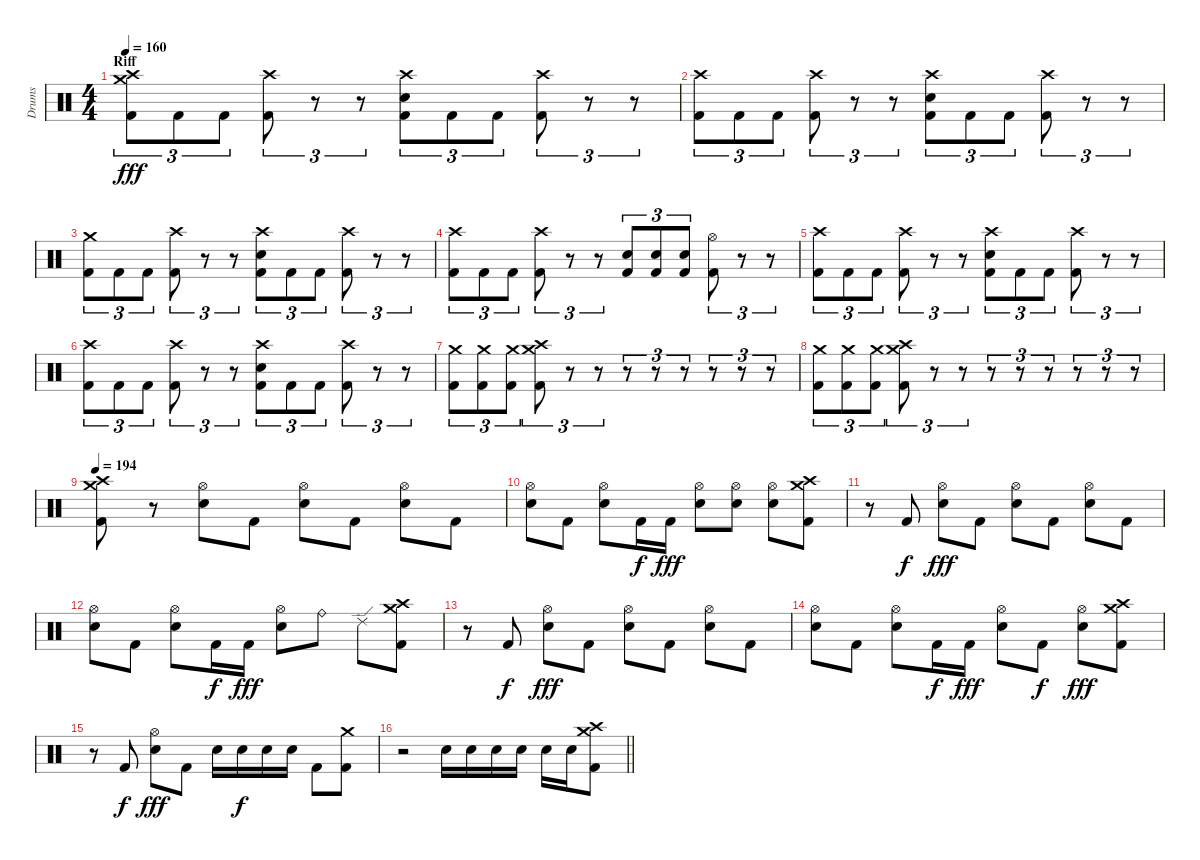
\track ("Drums" "Drums") {instrument percussion}
\staff {score}
\articulation defaults
\ts (4 4)
\section ("" "Riff")
\tempo 160
\clef neutral
\ks c
("Crash medium (hit)" "Crash high (hit)" "Kick (hit) 2").8{tu (3 2) dy fff} "Kick (hit) 2".8{tu (3 2)} "Kick (hit) 2".8{tu (3 2)} ("Crash high (hit)" "Kick (hit) 2").8{tu (3 2)} r.8{tu (3 2)} r.8{tu (3 2)} ("Crash high (hit)" "Electric Snare (hit)" "Kick (hit) 2").8{tu (3 2)} "Kick (hit) 2".8{tu (3 2)} "Kick (hit) 2".8{tu (3 2)} ("Crash high (hit)" "Kick (hit) 2").8{tu (3 2)} r.8{tu (3 2)} r.8{tu (3 2)} |
("Crash high (hit)" "Kick (hit) 2").8{tu (3 2)} "Kick (hit) 2".8{tu (3 2)} "Kick (hit) 2".8{tu (3 2)} ("Crash high (hit)" "Kick (hit) 2").8{tu (3 2)} r.8{tu (3 2)} r.8{tu (3 2)} ("Crash high (hit)" "Electric Snare (hit)" "Kick (hit) 2").8{tu (3 2)} "Kick (hit) 2".8{tu (3 2)} "Kick (hit) 2".8{tu (3 2)} ("Crash high (hit)" "Kick (hit) 2").8{tu (3 2)} r.8{tu (3 2)} r.8{tu (3 2)} |
("Crash medium (hit)" "Kick (hit) 2").8{tu (3 2)} "Kick (hit) 2".8{tu (3 2)} "Kick (hit) 2".8{tu (3 2)} ("Crash high (hit)" "Kick (hit) 2").8{tu (3 2)} r.8{tu (3 2)} r.8{tu (3 2)} ("Crash high (hit)" "Electric Snare (hit)" "Kick (hit) 2").8{tu (3 2)} "Kick (hit) 2".8{tu (3 2)} "Kick (hit) 2".8{tu (3 2)} ("Crash high (hit)" "Kick (hit) 2").8{tu (3 2)} r.8{tu (3 2)} r.8{tu (3 2)} |
("Crash high (hit)" "Kick (hit) 2").8{tu (3 2)} "Kick (hit) 2".8{tu (3 2)} "Kick (hit) 2".8{tu (3 2)} ("Crash high (hit)" "Kick (hit) 2").8{tu (3 2)} r.8{tu (3 2)} r.8{tu (3 2)} ("Electric Snare (hit)" "Kick (hit) 2").8{tu (3 2)} ("Electric Snare (hit)" "Kick (hit) 2").8{tu (3 2)} ("Electric Snare (hit)" "Kick (hit) 2").8{tu (3 2)} ("Hi-Hat (open)" "Kick (hit) 2").8{tu (3 2)} r.8{tu (3 2)} r.8{tu (3 2)} |
("Crash high (hit)" "Kick (hit) 2").8{tu (3 2)} "Kick (hit) 2".8{tu (3 2)} "Kick (hit) 2".8{tu (3 2)} ("Crash high (hit)" "Kick (hit) 2").8{tu (3 2)} r.8{tu (3 2)} r.8{tu (3 2)} ("Crash high (hit)" "Electric Snare (hit)" "Kick (hit) 2").8{tu (3 2)} "Kick (hit) 2".8{tu (3 2)} "Kick (hit) 2".8{tu (3 2)} ("Crash high (hit)" "Kick (hit) 2").8{tu (3 2)} r.8{tu (3 2)} r.8{tu (3 2)} |
("Crash high (hit)" "Kick (hit) 2").8{tu (3 2)} "Kick (hit) 2".8{tu (3 2)} "Kick (hit) 2".8{tu (3 2)} ("Crash high (hit)" "Kick (hit) 2").8{tu (3 2)} r.8{tu (3 2)} r.8{tu (3 2)} ("Crash high (hit)" "Electric Snare (hit)" "Kick (hit) 2").8{tu (3 2)} "Kick (hit) 2".8{tu (3 2)} "Kick (hit) 2".8{tu (3 2)} ("Crash high (hit)" "Kick (hit) 2").8{tu (3 2)} r.8{tu (3 2)} r.8{tu (3 2)} |
("Crash medium (hit)" "Kick (hit) 2").8{tu (3 2)} ("Crash medium (hit)" "Kick (hit) 2").8{tu (3 2)} ("Crash medium (hit)" "Kick (hit) 2").8{tu (3 2)} ("Crash medium (hit)" "Crash high (hit)" "Kick (hit) 2").8{tu (3 2)} r.8{tu (3 2) volume 0} r.8{tu (3 2)} r.8{tu (3 2)} r.8{tu (3 2)} r.8{tu (3 2)} r.8{tu (3 2)} r.8{tu (3 2)} r.8{tu (3 2)} |
("Crash medium (hit)" "Kick (hit) 2").8{tu (3 2) volume 13} ("Crash medium (hit)" "Kick (hit) 2").8{tu (3 2)} ("Crash medium (hit)" "Kick (hit) 2").8{tu (3 2)} ("Crash medium (hit)" "Crash high (hit)" "Kick (hit) 2").8{tu (3 2)} r.8{tu (3 2)} r.8{tu (3 2)} r.8{tu (3 2)} r.8{tu (3 2)} r.8{tu (3 2)} r.8{tu (3 2)} r.8{tu (3 2)} r.8{tu (3 2)} |
\tempo 194
("Crash medium (hit)" "Crash high (hit)" "Kick (hit) 2").8 r.8 ("Hi-Hat (open)" "Electric Snare (hit)").8 "Kick (hit) 2".8 ("Hi-Hat (open)" "Electric Snare (hit)").8 "Kick (hit) 2".8 ("Hi-Hat (open)" "Electric Snare (hit)").8 "Kick (hit) 2".8 |
("Hi-Hat (open)" "Electric Snare (hit)").8 "Kick (hit) 2".8 ("Hi-Hat (open)" "Electric Snare (hit)").8 "Kick (hit) 2".16{dy f} "Kick (hit) 2".16{dy fff} ("Hi-Hat (open)" "Electric Snare (hit)").8 ("Hi-Hat (open)" "Electric Snare (hit)").8 ("Hi-Hat (open)" "Electric Snare (hit)").8 ("Crash medium (hit)" "Crash high (hit)" "Kick (hit) 2").8 |
r.8 "Kick (hit) 2".8{dy f} ("Hi-Hat (open)" "Electric Snare (hit)").8{dy fff} "Kick (hit) 2".8 ("Hi-Hat (open)" "Electric Snare (hit)").8 "Kick (hit) 2".8 ("Hi-Hat (open)" "Electric Snare (hit)").8 "Kick (hit) 2".8 |
("Hi-Hat (open)" "Electric Snare (hit)").8 "Kick (hit) 2".8 ("Hi-Hat (open)" "Electric Snare (hit)").8 "Kick (hit) 2".16{dy f} "Kick (hit) 2".16{dy fff} ("Hi-Hat (open)" "Electric Snare (hit)").8 "Ride (bell)".8 "Ride (edge) 2".8 ("Crash medium (hit)" "Crash high (hit)" "Kick (hit) 2").8 |
r.8 "Kick (hit) 2".8{dy f} ("Hi-Hat (open)" "Electric Snare (hit)").8{dy fff} "Kick (hit) 2".8 ("Hi-Hat (open)" "Electric Snare (hit)").8 "Kick (hit) 2".8 ("Hi-Hat (open)" "Electric Snare (hit)").8 "Kick (hit) 2".8 |
("Hi-Hat (open)" "Electric Snare (hit)").8 "Kick (hit) 2".8 ("Hi-Hat (open)" "Electric Snare (hit)").8 "Kick (hit) 2".16{dy f} "Kick (hit) 2".16{dy fff} ("Hi-Hat (open)" "Electric Snare (hit)").8 "Kick (hit) 2".8{dy f} ("Hi-Hat (open)" "Electric Snare (hit)").8{dy fff} ("Crash medium (hit)" "Crash high (hit)" "Kick (hit) 2").8 |
r.8 "Kick (hit) 2".8{dy f} ("Hi-Hat (open)" "Electric Snare (hit)").8{dy fff} "Kick (hit) 2".8 "Electric Snare (hit)".16 "Electric Snare (hit)".16{dy f} "Electric Snare (hit)".16 "Electric Snare (hit)".16 "Kick (hit) 2".8 ("Crash medium (hit)" "Kick (hit) 2").8 |
\barLineRight lightlight
r.2 "Electric Snare (hit)".16 "Electric Snare (hit)".16 "Electric Snare (hit)".16 "Electric Snare (hit)".16 "Electric Snare (hit)".16 "Electric Snare (hit)".16 ("Crash medium (hit)" "Crash high (hit)" "Kick (hit) 2").8
